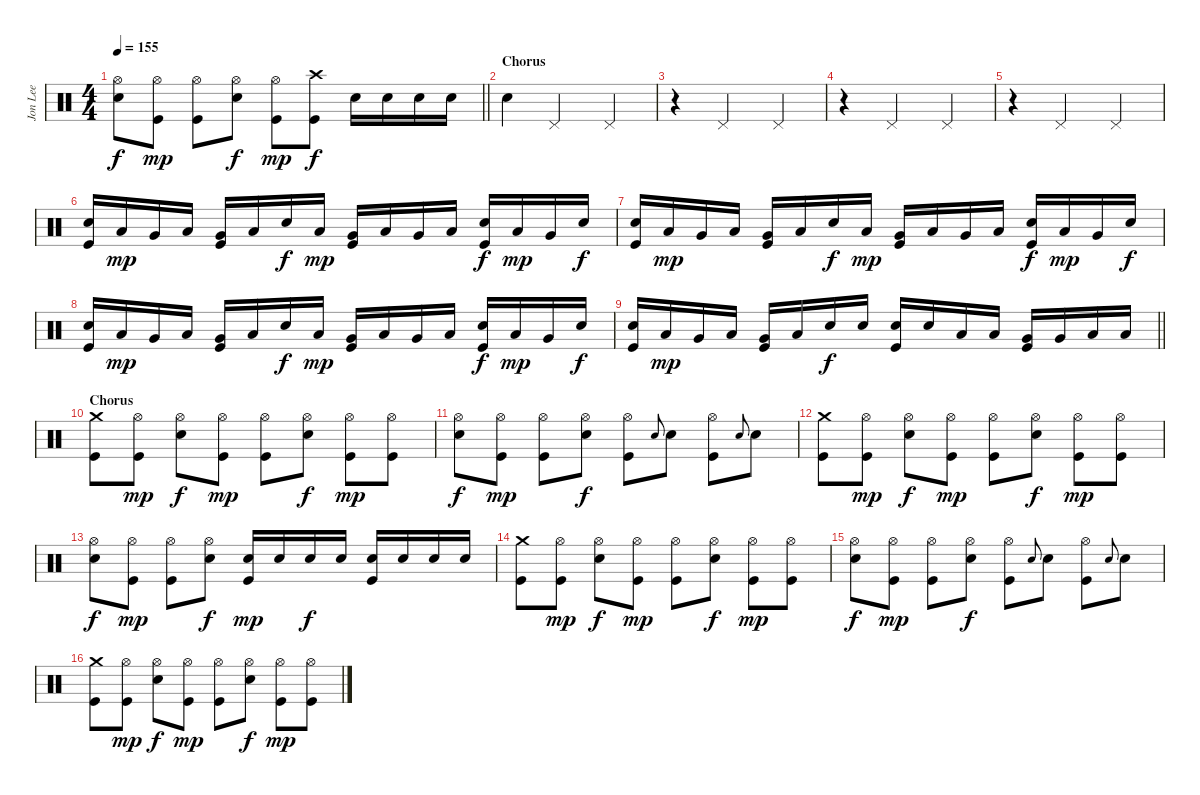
\track ("Jon Lee" "Jon Lee") {instrument percussion}
\staff {score}
\articulation defaults
\ts (4 4)
\tempo 155
\clef neutral
\barLineRight lightlight
\ks c
("Hi-Hat (open)" "Electric Snare (hit)").8{dy f} ("Hi-Hat (open)" "Kick (hit)").8{dy mp} ("Hi-Hat (open)" "Kick (hit)").8 ("Hi-Hat (open)" "Electric Snare (hit)").8{dy f} ("Hi-Hat (open)" "Kick (hit)").8{dy mp} ("Crash high (hit)" "Kick (hit)").8{dy f} "Electric Snare (hit)".16 "Electric Snare (hit)".16 "Electric Snare (hit)".16 "Electric Snare (hit)".16 |
\section ("" "Chorus")
"Electric Snare (hit)".4 "Pedal Hi-Hat (hit)".2 "Pedal Hi-Hat (hit)".4 |
r.4 "Pedal Hi-Hat (hit)".2 "Pedal Hi-Hat (hit)".4 |
r.4 "Pedal Hi-Hat (hit)".2 "Pedal Hi-Hat (hit)".4 |
r.4 "Pedal Hi-Hat (hit)".2 "Pedal Hi-Hat (hit)".4 |
("Electric Snare (hit)" "Kick (hit)").16 "Low Tom (hit)".16{dy mp} "Very Low Tom (hit)".16 "Low Tom (hit)".16 ("Very Low Tom (hit)" "Kick (hit)").16 "Low Tom (hit)".16 "Electric Snare (hit)".16{dy f} "Low Tom (hit)".16{dy mp} ("Very Low Tom (hit)" "Kick (hit)").16 "Low Tom (hit)".16 "Very Low Tom (hit)".16 "Low Tom (hit)".16 ("Electric Snare (hit)" "Kick (hit)").16{dy f} "Low Tom (hit)".16{dy mp} "Very Low Tom (hit)".16 "Electric Snare (hit)".16{dy f} |
("Electric Snare (hit)" "Kick (hit)").16 "Low Tom (hit)".16{dy mp} "Very Low Tom (hit)".16 "Low Tom (hit)".16 ("Very Low Tom (hit)" "Kick (hit)").16 "Low Tom (hit)".16 "Electric Snare (hit)".16{dy f} "Low Tom (hit)".16{dy mp} ("Very Low Tom (hit)" "Kick (hit)").16 "Low Tom (hit)".16 "Very Low Tom (hit)".16 "Low Tom (hit)".16 ("Electric Snare (hit)" "Kick (hit)").16{dy f} "Low Tom (hit)".16{dy mp} "Very Low Tom (hit)".16 "Electric Snare (hit)".16{dy f} |
("Electric Snare (hit)" "Kick (hit)").16 "Low Tom (hit)".16{dy mp} "Very Low Tom (hit)".16 "Low Tom (hit)".16 ("Very Low Tom (hit)" "Kick (hit)").16 "Low Tom (hit)".16 "Electric Snare (hit)".16{dy f} "Low Tom (hit)".16{dy mp} ("Very Low Tom (hit)" "Kick (hit)").16 "Low Tom (hit)".16 "Very Low Tom (hit)".16 "Low Tom (hit)".16 ("Electric Snare (hit)" "Kick (hit)").16{dy f} "Low Tom (hit)".16{dy mp} "Very Low Tom (hit)".16 "Electric Snare (hit)".16{dy f} |
\barLineRight lightlight
("Electric Snare (hit)" "Kick (hit)").16 "Low Tom (hit)".16{dy mp} "Very Low Tom (hit)".16 "Low Tom (hit)".16 ("Very Low Tom (hit)" "Kick (hit)").16 "Low Tom (hit)".16 "Electric Snare (hit)".16{dy f} "Electric Snare (hit)".16 ("Electric Snare (hit)" "Kick (hit)").16 "Electric Snare (hit)".16 "Low Tom (hit)".16 "Low Tom (hit)".16 ("Very Low Tom (hit)" "Kick (hit)").16 "Very Low Tom (hit)".16 "Low Floor Tom (hit)".16 "Low Floor Tom (hit)".16 |
\section ("" "Chorus")
("Crash medium (hit)" "Kick (hit)").8 ("Hi-Hat (open)" "Kick (hit)").8{dy mp} ("Hi-Hat (open)" "Electric Snare (hit)").8{dy f} ("Hi-Hat (open)" "Kick (hit)").8{dy mp} ("Hi-Hat (open)" "Kick (hit)").8 ("Hi-Hat (open)" "Electric Snare (hit)").8{dy f} ("Hi-Hat (open)" "Kick (hit)").8{dy mp} ("Hi-Hat (open)" "Kick (hit)").8 |
("Hi-Hat (open)" "Electric Snare (hit)").8{dy f} ("Hi-Hat (open)" "Kick (hit)").8{dy mp} ("Hi-Hat (open)" "Kick (hit)").8 ("Hi-Hat (open)" "Electric Snare (hit)").8{dy f} ("Hi-Hat (open)" "Kick (hit)").8 "Electric Snare (hit)".8{gr onbeat} "Electric Snare (hit)".8 ("Hi-Hat (open)" "Kick (hit)").8 "Electric Snare (hit)".8{gr onbeat} "Electric Snare (hit)".8 |
("Crash medium (hit)" "Kick (hit)").8 ("Hi-Hat (open)" "Kick (hit)").8{dy mp} ("Hi-Hat (open)" "Electric Snare (hit)").8{dy f} ("Hi-Hat (open)" "Kick (hit)").8{dy mp} ("Hi-Hat (open)" "Kick (hit)").8 ("Hi-Hat (open)" "Electric Snare (hit)").8{dy f} ("Hi-Hat (open)" "Kick (hit)").8{dy mp} ("Hi-Hat (open)" "Kick (hit)").8 |
("Hi-Hat (open)" "Electric Snare (hit)").8{dy f} ("Hi-Hat (open)" "Kick (hit)").8{dy mp} ("Hi-Hat (open)" "Kick (hit)").8 ("Hi-Hat (open)" "Electric Snare (hit)").8{dy f} ("Electric Snare (hit)" "Kick (hit)").16{dy mp} "Electric Snare (hit)".16 "Electric Snare (hit)".16{dy f} "Electric Snare (hit)".16 ("Electric Snare (hit)" "Kick (hit)").16 "Electric Snare (hit)".16 "Electric Snare (hit)".16 "Electric Snare (hit)".16 |
("Crash medium (hit)" "Kick (hit)").8 ("Hi-Hat (open)" "Kick (hit)").8{dy mp} ("Hi-Hat (open)" "Electric Snare (hit)").8{dy f} ("Hi-Hat (open)" "Kick (hit)").8{dy mp} ("Hi-Hat (open)" "Kick (hit)").8 ("Hi-Hat (open)" "Electric Snare (hit)").8{dy f} ("Hi-Hat (open)" "Kick (hit)").8{dy mp} ("Hi-Hat (open)" "Kick (hit)").8 |
("Hi-Hat (open)" "Electric Snare (hit)").8{dy f} ("Hi-Hat (open)" "Kick (hit)").8{dy mp} ("Hi-Hat (open)" "Kick (hit)").8 ("Hi-Hat (open)" "Electric Snare (hit)").8{dy f} ("Hi-Hat (open)" "Kick (hit)").8 "Electric Snare (hit)".8{gr onbeat} "Electric Snare (hit)".8 ("Hi-Hat (open)" "Kick (hit)").8 "Electric Snare (hit)".8{gr onbeat} "Electric Snare (hit)".8 |
("Crash medium (hit)" "Kick (hit)").8 ("Hi-Hat (open)" "Kick (hit)").8{dy mp} ("Hi-Hat (open)" "Electric Snare (hit)").8{dy f} ("Hi-Hat (open)" "Kick (hit)").8{dy mp} ("Hi-Hat (open)" "Kick (hit)").8 ("Hi-Hat (open)" "Electric Snare (hit)").8{dy f} ("Hi-Hat (open)" "Kick (hit)").8{dy mp} ("Hi-Hat (open)" "Kick (hit)").8
